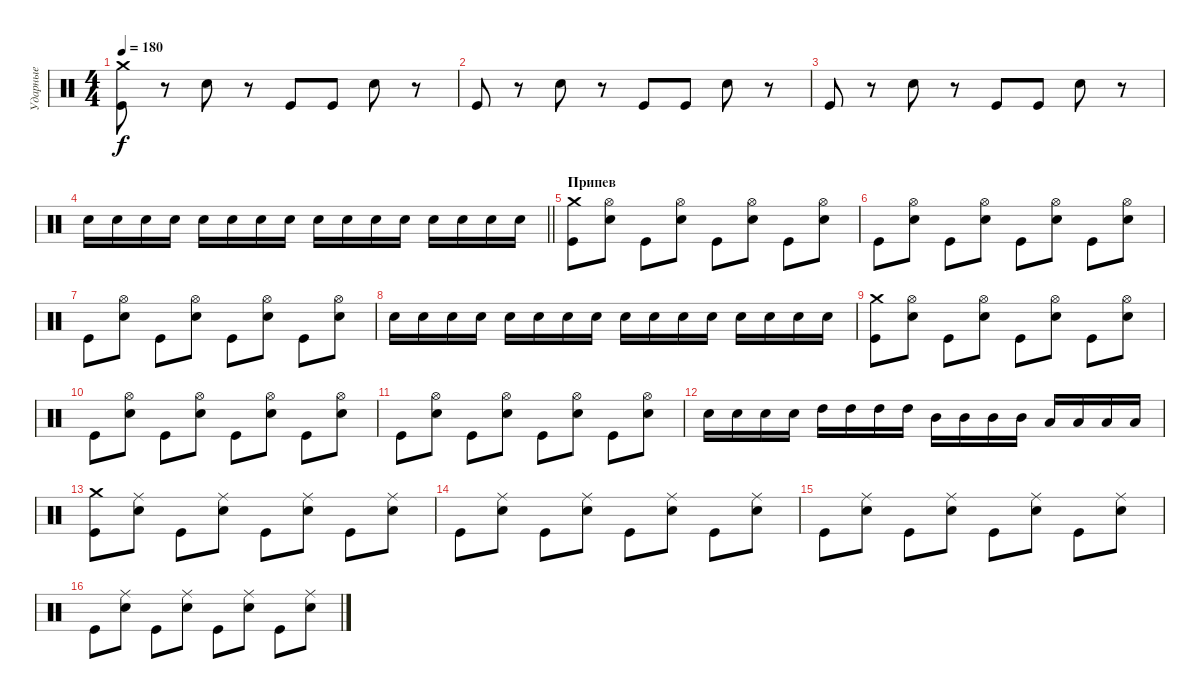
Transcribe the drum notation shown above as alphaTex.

\track ("Ударные" "Ударные") {instrument percussion}
\staff {score}
\articulation defaults
\ts (4 4)
\tempo 180
\clef neutral
\ks c
("Crash medium (hit)" "Kick (hit)").8{dy f} r.8 "Electric Snare (hit)".8 r.8 "Kick (hit)".8 "Kick (hit)".8 "Electric Snare (hit)".8 r.8 |
"Kick (hit)".8 r.8 "Electric Snare (hit)".8 r.8 "Kick (hit)".8 "Kick (hit)".8 "Electric Snare (hit)".8 r.8 |
"Kick (hit)".8 r.8 "Electric Snare (hit)".8 r.8 "Kick (hit)".8 "Kick (hit)".8 "Electric Snare (hit)".8 r.8 |
\barLineRight lightlight "Electric Snare (hit)".16 "Electric Snare (hit)".16 "Electric Snare (hit)".16 "Electric Snare (hit)".16 "Electric Snare (hit)".16 "Electric Snare (hit)".16 "Electric Snare (hit)".16 "Electric Snare (hit)".16 "Electric Snare (hit)".16 "Electric Snare (hit)".16 "Electric Snare (hit)".16 "Electric Snare (hit)".16 "Electric Snare (hit)".16 "Electric Snare (hit)".16 "Electric Snare (hit)".16 "Electric Snare (hit)".16
|
\section ("" "Припев")
("Crash medium (hit)" "Kick (hit)").8 ("Hi-Hat (open)" "Electric Snare (hit)").8 "Kick (hit)".8 ("Hi-Hat (open)" "Electric Snare (hit)").8 "Kick (hit)".8 ("Hi-Hat (open)" "Electric Snare (hit)").8 "Kick (hit)".8 ("Hi-Hat (open)" "Electric Snare (hit)").8 |
"Kick (hit)".8 ("Hi-Hat (open)" "Electric Snare (hit)").8 "Kick (hit)".8 ("Hi-Hat (open)" "Electric Snare (hit)").8 "Kick (hit)".8 ("Hi-Hat (open)" "Electric Snare (hit)").8 "Kick (hit)".8 ("Hi-Hat (open)" "Electric Snare (hit)").8 |
"Kick (hit)".8 ("Hi-Hat (open)" "Electric Snare (hit)").8 "Kick (hit)".8 ("Hi-Hat (open)" "Electric Snare (hit)").8 "Kick (hit)".8 ("Hi-Hat (open)" "Electric Snare (hit)").8 "Kick (hit)".8 ("Hi-Hat (open)" "Electric Snare (hit)").8 |
"Electric Snare (hit)".16 "Electric Snare (hit)".16 "Electric Snare (hit)".16 "Electric Snare (hit)".16 "Electric Snare (hit)".16 "Electric Snare (hit)".16 "Electric Snare (hit)".16 "Electric Snare (hit)".16 "Electric Snare (hit)".16 "Electric Snare (hit)".16 "Electric Snare (hit)".16 "Electric Snare (hit)".16 "Electric Snare (hit)".16 "Electric Snare (hit)".16 "Electric Snare (hit)".16 "Electric Snare (hit)".16 |
("Crash medium (hit)" "Kick (hit)").8 ("Hi-Hat (open)" "Electric Snare (hit)").8 "Kick (hit)".8 ("Hi-Hat (open)" "Electric Snare (hit)").8 "Kick (hit)".8 ("Hi-Hat (open)" "Electric Snare (hit)").8 "Kick (hit)".8 ("Hi-Hat (open)" "Electric Snare (hit)").8 |
"Kick (hit)".8 ("Hi-Hat (open)" "Electric Snare (hit)").8 "Kick (hit)".8 ("Hi-Hat (open)" "Electric Snare (hit)").8 "Kick (hit)".8 ("Hi-Hat (open)" "Electric Snare (hit)").8 "Kick (hit)".8 ("Hi-Hat (open)" "Electric Snare (hit)").8 |
"Kick (hit)".8 ("Hi-Hat (open)" "Electric Snare (hit)").8 "Kick (hit)".8 ("Hi-Hat (open)" "Electric Snare (hit)").8 "Kick (hit)".8 ("Hi-Hat (open)" "Electric Snare (hit)").8 "Kick (hit)".8 ("Hi-Hat (open)" "Electric Snare (hit)").8 |
"Electric Snare (hit)".16 "Electric Snare (hit)".16 "Electric Snare (hit)".16 "Electric Snare (hit)".16 "High Tom (hit)".16 "High Tom (hit)".16 "High Tom (hit)".16 "High Tom (hit)".16 "Mid Tom (hit)".16 "Mid Tom (hit)".16 "Mid Tom (hit)".16 "Mid Tom (hit)".16 "Low Tom (hit)".16 "Low Tom (hit)".16 "Low Tom (hit)".16 "Low Tom (hit)".16 |
("Crash medium (hit)" "Kick (hit)").8 ("Ride (middle)" "Electric Snare (hit)").8 "Kick (hit)".8 ("Ride (middle)" "Electric Snare (hit)").8 "Kick (hit)".8 ("Ride (middle)" "Electric Snare (hit)").8 "Kick (hit)".8 ("Ride (middle)" "Electric Snare (hit)").8 |
"Kick (hit)".8 ("Ride (middle)" "Electric Snare (hit)").8 "Kick (hit)".8 ("Ride (middle)" "Electric Snare (hit)").8 "Kick (hit)".8 ("Ride (middle)" "Electric Snare (hit)").8 "Kick (hit)".8 ("Ride (middle)" "Electric Snare (hit)").8 |
"Kick (hit)".8 ("Ride (middle)" "Electric Snare (hit)").8 "Kick (hit)".8 ("Ride (middle)" "Electric Snare (hit)").8 "Kick (hit)".8 ("Ride (middle)" "Electric Snare (hit)").8 "Kick (hit)".8 ("Ride (middle)" "Electric Snare (hit)").8 |
"Kick (hit)".8 ("Ride (middle)" "Electric Snare (hit)").8 "Kick (hit)".8 ("Ride (middle)" "Electric Snare (hit)").8 "Kick (hit)".8 ("Ride (middle)" "Electric Snare (hit)").8 "Kick (hit)".8 ("Ride (middle)" "Electric Snare (hit)").8
